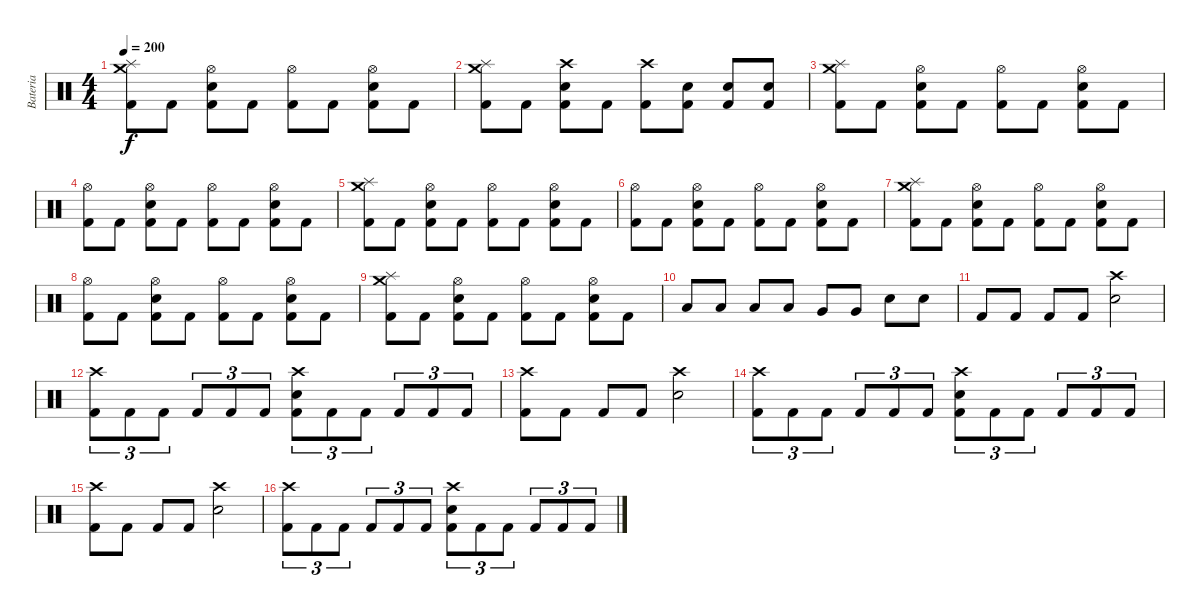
\track ("Bateria " "Bateria ") {instrument percussion}
\staff {score}
\articulation defaults
\ts (4 4)
\tempo 200
\clef neutral
\ks c
("Kick (hit) 2" "Crash medium (hit)" "Splash (hit)").8{dy f} "Kick (hit) 2".8 ("Kick (hit) 2" "Electric Snare (hit)" "Hi-Hat (open)").8 "Kick (hit) 2".8 ("Kick (hit) 2" "Hi-Hat (open)").8 "Kick (hit) 2".8 ("Kick (hit) 2" "Electric Snare (hit)" "Hi-Hat (open)").8 "Kick (hit) 2".8 |
("Kick (hit) 2" "Splash (hit)" "Crash medium (hit)").8 "Kick (hit) 2".8 ("Kick (hit) 2" "Electric Snare (hit)" "Crash high (hit)").8 "Kick (hit) 2".8 ("Kick (hit) 2" "Crash high (hit)").8 ("Kick (hit) 2" "Electric Snare (hit)").8 ("Kick (hit) 2" "Electric Snare (hit)").8 ("Kick (hit) 2" "Electric Snare (hit)").8 |
("Kick (hit) 2" "Crash medium (hit)" "Splash (hit)").8 "Kick (hit) 2".8 ("Kick (hit) 2" "Electric Snare (hit)" "Hi-Hat (open)").8 "Kick (hit) 2".8 ("Kick (hit) 2" "Hi-Hat (open)").8 "Kick (hit) 2".8 ("Kick (hit) 2" "Electric Snare (hit)" "Hi-Hat (open)").8 "Kick (hit) 2".8 |
("Kick (hit) 2" "Hi-Hat (open)").8 "Kick (hit) 2".8 ("Kick (hit) 2" "Electric Snare (hit)" "Hi-Hat (open)").8 "Kick (hit) 2".8 ("Kick (hit) 2" "Hi-Hat (open)").8 "Kick (hit) 2".8 ("Kick (hit) 2" "Electric Snare (hit)" "Hi-Hat (open)").8 "Kick (hit) 2".8 |
("Kick (hit) 2" "Crash medium (hit)" "Splash (hit)").8 "Kick (hit) 2".8 ("Kick (hit) 2" "Electric Snare (hit)" "Hi-Hat (open)").8 "Kick (hit) 2".8 ("Kick (hit) 2" "Hi-Hat (open)").8 "Kick (hit) 2".8 ("Kick (hit) 2" "Electric Snare (hit)" "Hi-Hat (open)").8 "Kick (hit) 2".8 |
("Kick (hit) 2" "Hi-Hat (open)").8 "Kick (hit) 2".8 ("Kick (hit) 2" "Electric Snare (hit)" "Hi-Hat (open)").8 "Kick (hit) 2".8 ("Kick (hit) 2" "Hi-Hat (open)").8 "Kick (hit) 2".8 ("Kick (hit) 2" "Electric Snare (hit)" "Hi-Hat (open)").8 "Kick (hit) 2".8 |
("Kick (hit) 2" "Crash medium (hit)" "Splash (hit)").8 "Kick (hit) 2".8 ("Kick (hit) 2" "Electric Snare (hit)" "Hi-Hat (open)").8 "Kick (hit) 2".8 ("Kick (hit) 2" "Hi-Hat (open)").8 "Kick (hit) 2".8 ("Kick (hit) 2" "Electric Snare (hit)" "Hi-Hat (open)").8 "Kick (hit) 2".8 |
("Kick (hit) 2" "Hi-Hat (open)").8 "Kick (hit) 2".8 ("Kick (hit) 2" "Electric Snare (hit)" "Hi-Hat (open)").8 "Kick (hit) 2".8 ("Kick (hit) 2" "Hi-Hat (open)").8 "Kick (hit) 2".8 ("Kick (hit) 2" "Electric Snare (hit)" "Hi-Hat (open)").8 "Kick (hit) 2".8 |
("Kick (hit) 2" "Crash medium (hit)" "Splash (hit)").8 "Kick (hit) 2".8 ("Kick (hit) 2" "Electric Snare (hit)" "Hi-Hat (open)").8 "Kick (hit) 2".8 ("Kick (hit) 2" "Hi-Hat (open)").8 "Kick (hit) 2".8 ("Kick (hit) 2" "Electric Snare (hit)" "Hi-Hat (open)").8 "Kick (hit) 2".8 |
"Low Tom (hit)".8 "Low Tom (hit)".8 "Low Tom (hit)".8 "Low Tom (hit)".8 "Very Low Tom (hit)".8 "Very Low Tom (hit)".8 "Electric Snare (hit)".8 "Electric Snare (hit)".8 |
"Kick (hit) 2".8 "Kick (hit) 2".8 "Kick (hit) 2".8 "Kick (hit) 2".8 ("Electric Snare (hit)" "Crash high (hit)").2 |
("Kick (hit) 2" "Crash high (hit)").8{tu (3 2)} "Kick (hit) 2".8{tu (3 2)} "Kick (hit) 2".8{tu (3 2)} "Kick (hit) 2".8{tu (3 2)} "Kick (hit) 2".8{tu (3 2)} "Kick (hit) 2".8{tu (3 2)} ("Kick (hit) 2" "Electric Snare (hit)" "Crash high (hit)").8{tu (3 2)} "Kick (hit) 2".8{tu (3 2)} "Kick (hit) 2".8{tu (3 2)} "Kick (hit) 2".8{tu (3 2)} "Kick (hit) 2".8{tu (3 2)} "Kick (hit) 2".8{tu (3 2)} |
("Kick (hit) 2" "Crash high (hit)").8 "Kick (hit) 2".8 "Kick (hit) 2".8 "Kick (hit) 2".8 ("Electric Snare (hit)" "Crash high (hit)").2 |
("Kick (hit) 2" "Crash high (hit)").8{tu (3 2)} "Kick (hit) 2".8{tu (3 2)} "Kick (hit) 2".8{tu (3 2)} "Kick (hit) 2".8{tu (3 2)} "Kick (hit) 2".8{tu (3 2)} "Kick (hit) 2".8{tu (3 2)} ("Kick (hit) 2" "Electric Snare (hit)" "Crash high (hit)").8{tu (3 2)} "Kick (hit) 2".8{tu (3 2)} "Kick (hit) 2".8{tu (3 2)} "Kick (hit) 2".8{tu (3 2)} "Kick (hit) 2".8{tu (3 2)} "Kick (hit) 2".8{tu (3 2)} |
("Kick (hit) 2" "Crash high (hit)").8 "Kick (hit) 2".8 "Kick (hit) 2".8 "Kick (hit) 2".8 ("Electric Snare (hit)" "Crash high (hit)").2 |
("Kick (hit) 2" "Crash high (hit)").8{tu (3 2)} "Kick (hit) 2".8{tu (3 2)} "Kick (hit) 2".8{tu (3 2)} "Kick (hit) 2".8{tu (3 2)} "Kick (hit) 2".8{tu (3 2)} "Kick (hit) 2".8{tu (3 2)} ("Kick (hit) 2" "Electric Snare (hit)" "Crash high (hit)").8{tu (3 2)} "Kick (hit) 2".8{tu (3 2)} "Kick (hit) 2".8{tu (3 2)} "Kick (hit) 2".8{tu (3 2)} "Kick (hit) 2".8{tu (3 2)} "Kick (hit) 2".8{tu (3 2)}
